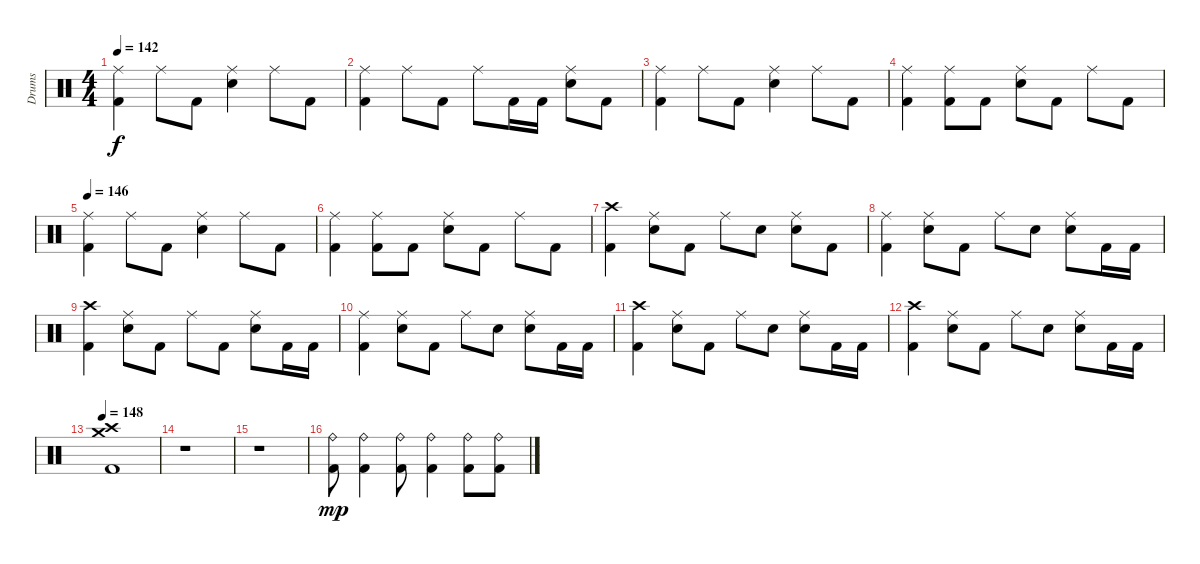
\track ("Drums" "Drums") {instrument percussion}
\staff {score}
\articulation defaults
\ts (4 4)
\tempo 142
\clef neutral
\ks c
("Ride (middle)" "Kick (hit) 2").4{dy f} "Ride (middle)".8 "Kick (hit) 2".8 ("Ride (middle)" "Snare (hit) 2").4 "Ride (middle)".8 "Kick (hit) 2".8 |
("Ride (middle)" "Kick (hit) 2").4 "Ride (middle)".8 "Kick (hit) 2".8 "Ride (middle)".8 "Kick (hit) 2".16 "Kick (hit) 2".16 ("Ride (middle)" "Snare (hit) 2").8 "Kick (hit) 2".8 |
("Ride (middle)" "Kick (hit) 2").4 "Ride (middle)".8 "Kick (hit) 2".8 ("Ride (middle)" "Snare (hit) 2").4 "Ride (middle)".8 "Kick (hit) 2".8 |
("Ride (middle)" "Kick (hit) 2").4 ("Ride (middle)" "Kick (hit) 2").8 "Kick (hit) 2".8 ("Ride (middle)" "Snare (hit) 2").8 "Kick (hit) 2".8 "Ride (middle)".8 "Kick (hit) 2".8 |
\tempo 146
("Ride (middle)" "Kick (hit) 2").4 "Ride (middle)".8 "Kick (hit) 2".8 ("Ride (middle)" "Snare (hit) 2").4 "Ride (middle)".8 "Kick (hit) 2".8 |
("Ride (middle)" "Kick (hit) 2").4 ("Ride (middle)" "Kick (hit) 2").8 "Kick (hit) 2".8 ("Ride (middle)" "Snare (hit) 2").8 "Kick (hit) 2".8 "Ride (middle)".8 "Kick (hit) 2".8 |
("Crash high (hit)" "Kick (hit) 2").4 ("Ride (middle)" "Snare (hit) 2").8 "Kick (hit) 2".8 "Ride (middle)".8 "Snare (hit) 2".8 ("Ride (middle)" "Snare (hit) 2").8 "Kick (hit) 2".8 |
("Ride (middle)" "Kick (hit) 2").4 ("Ride (middle)" "Snare (hit) 2").8 "Kick (hit) 2".8 "Ride (middle)".8 "Snare (hit) 2".8 ("Ride (middle)" "Snare (hit) 2").8 "Kick (hit) 2".16 "Kick (hit) 2".16 |
("Crash high (hit)" "Kick (hit) 2").4 ("Ride (middle)" "Snare (hit) 2").8 "Kick (hit) 2".8 "Ride (middle)".8 "Kick (hit) 2".8 ("Ride (middle)" "Snare (hit) 2").8 "Kick (hit) 2".16 "Kick (hit) 2".16 |
("Ride (middle)" "Kick (hit) 2").4 ("Ride (middle)" "Snare (hit) 2").8 "Kick (hit) 2".8 "Ride (middle)".8 "Snare (hit) 2".8 ("Ride (middle)" "Snare (hit) 2").8 "Kick (hit) 2".16 "Kick (hit) 2".16 |
("Crash high (hit)" "Kick (hit) 2").4 ("Ride (middle)" "Snare (hit) 2").8 "Kick (hit) 2".8 "Ride (middle)".8 "Snare (hit) 2".8 ("Ride (middle)" "Snare (hit) 2").8 "Kick (hit) 2".16 "Kick (hit) 2".16 |
("Crash high (hit)" "Kick (hit) 2").4 ("Ride (middle)" "Snare (hit) 2").8 "Kick (hit) 2".8 "Ride (middle)".8 "Snare (hit) 2".8 ("Ride (middle)" "Snare (hit) 2").8 "Kick (hit) 2".16 "Kick (hit) 2".16 |
\tempo 148
("Crash high (hit)" "Crash medium (hit)" "Kick (hit) 2").1 |
r.1 |
r.1 |
("Ride (bell)" "Kick (hit) 2").8{dy mp} ("Ride (bell)" "Kick (hit) 2").4 ("Ride (bell)" "Kick (hit) 2").8 ("Ride (bell)" "Kick (hit) 2").4 ("Ride (bell)" "Kick (hit) 2").8 ("Ride (bell)" "Kick (hit) 2").8
